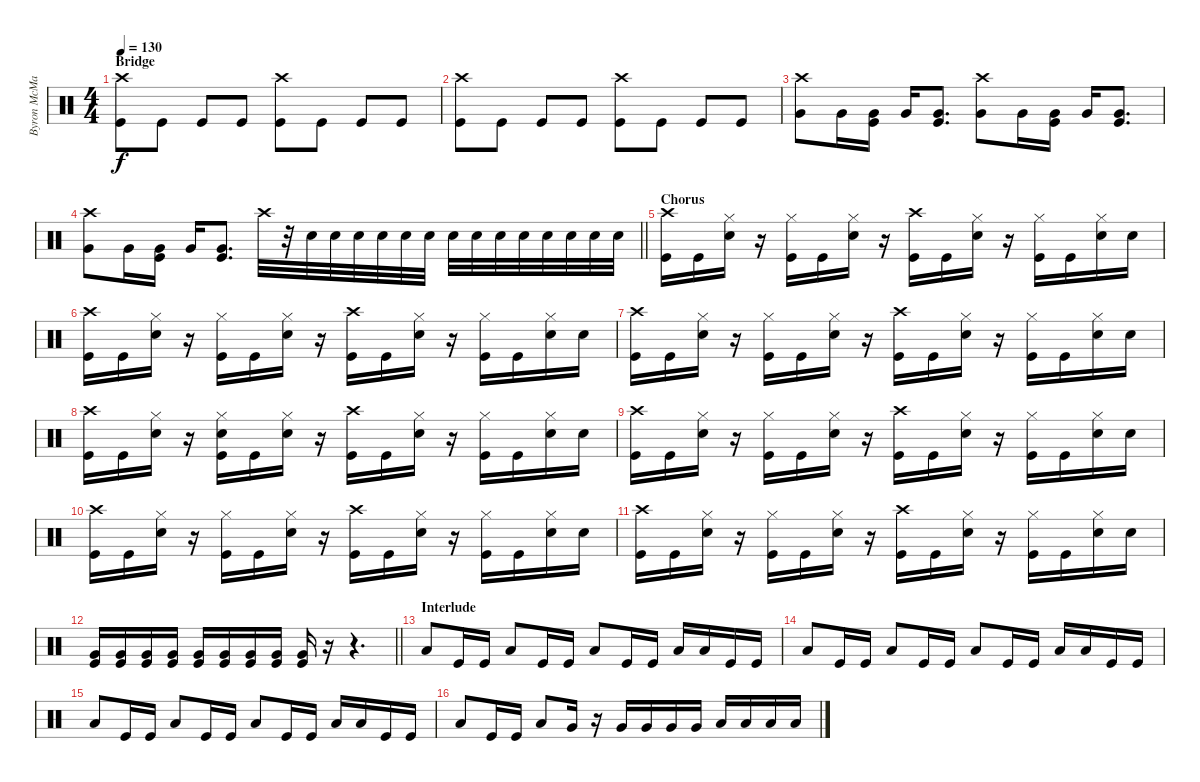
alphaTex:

\track ("Byron McMackin" "Byron McMa") {instrument percussion}
\staff {score}
\articulation defaults
\ts (4 4)
\section ("" "Bridge")
\tempo 130
\clef neutral
\ks c
("Crash high (hit)" "Kick (hit)").8{dy f} "Kick (hit)".8 "Kick (hit)".8 "Kick (hit)".8 ("Crash high (hit)" "Kick (hit)").8 "Kick (hit)".8 "Kick (hit)".8 "Kick (hit)".8 |
("Crash high (hit)" "Kick (hit)").8 "Kick (hit)".8 "Kick (hit)".8 "Kick (hit)".8 ("Crash high (hit)" "Kick (hit)").8 "Kick (hit)".8 "Kick (hit)".8 "Kick (hit)".8 |
("Crash high (hit)" "Very Low Tom (hit)").8 "Very Low Tom (hit)".16 ("Very Low Tom (hit)" "Kick (hit)").16 "Very Low Tom (hit)".16 ("Very Low Tom (hit)" "Kick (hit)").8{d} ("Crash high (hit)" "Very Low Tom (hit)").8 "Very Low Tom (hit)".16 ("Very Low Tom (hit)" "Kick (hit)").16 "Very Low Tom (hit)".16 ("Very Low Tom (hit)" "Kick (hit)").8{d} |
\barLineRight lightlight
("Crash high (hit)" "Very Low Tom (hit)").8 "Very Low Tom (hit)".16 ("Very Low Tom (hit)" "Kick (hit)").16 "Very Low Tom (hit)".16 ("Very Low Tom (hit)" "Kick (hit)").8{d} "Crash high (hit)".32 r.32 "Electric Snare (hit)".32 "Electric Snare (hit)".32 "Electric Snare (hit)".32 "Electric Snare (hit)".32 "Electric Snare (hit)".32 "Electric Snare (hit)".32 "Electric Snare (hit)".32 "Electric Snare (hit)".32 "Electric Snare (hit)".32 "Electric Snare (hit)".32 "Electric Snare (hit)".32 "Electric Snare (hit)".32 "Electric Snare (hit)".32 "Electric Snare (hit)".32 |
\section ("" "Chorus")
("Crash high (hit)" "Kick (hit)").16 "Kick (hit)".16 ("Hi-Hat (closed)" "Electric Snare (hit)").16 r.16 ("Hi-Hat (closed)" "Kick (hit)").16 "Kick (hit)".16 ("Hi-Hat (closed)" "Electric Snare (hit)").16 r.16 ("Crash high (hit)" "Kick (hit)").16 "Kick (hit)".16 ("Hi-Hat (closed)" "Electric Snare (hit)").16 r.16 ("Hi-Hat (closed)" "Kick (hit)").16 "Kick (hit)".16 ("Hi-Hat (closed)" "Electric Snare (hit)").16 "Electric Snare (hit)".16 |
("Crash high (hit)" "Kick (hit)").16 "Kick (hit)".16 ("Hi-Hat (closed)" "Electric Snare (hit)").16 r.16 ("Hi-Hat (closed)" "Kick (hit)").16 "Kick (hit)".16 ("Hi-Hat (closed)" "Electric Snare (hit)").16 r.16 ("Crash high (hit)" "Kick (hit)").16 "Kick (hit)".16 ("Hi-Hat (closed)" "Electric Snare (hit)").16 r.16 ("Hi-Hat (closed)" "Kick (hit)").16 "Kick (hit)".16 ("Hi-Hat (closed)" "Electric Snare (hit)").16 "Electric Snare (hit)".16 |
("Crash high (hit)" "Kick (hit)").16 "Kick (hit)".16 ("Hi-Hat (closed)" "Electric Snare (hit)").16 r.16 ("Hi-Hat (closed)" "Kick (hit)").16 "Kick (hit)".16 ("Hi-Hat (closed)" "Electric Snare (hit)").16 r.16 ("Crash high (hit)" "Kick (hit)").16 "Kick (hit)".16 ("Hi-Hat (closed)" "Electric Snare (hit)").16 r.16 ("Hi-Hat (closed)" "Kick (hit)").16 "Kick (hit)".16 ("Hi-Hat (closed)" "Electric Snare (hit)").16 "Electric Snare (hit)".16 |
("Crash high (hit)" "Kick (hit)").16 "Kick (hit)".16 ("Hi-Hat (closed)" "Electric Snare (hit)").16 r.16 ("Hi-Hat (closed)" "Electric Snare (hit)" "Kick (hit)").16 "Kick (hit)".16 ("Hi-Hat (closed)" "Electric Snare (hit)").16 r.16 ("Crash high (hit)" "Kick (hit)").16 "Kick (hit)".16 ("Hi-Hat (closed)" "Electric Snare (hit)").16 r.16 ("Hi-Hat (closed)" "Kick (hit)").16 "Kick (hit)".16 ("Hi-Hat (closed)" "Electric Snare (hit)").16 "Electric Snare (hit)".16 |
("Crash high (hit)" "Kick (hit)").16 "Kick (hit)".16 ("Hi-Hat (closed)" "Electric Snare (hit)").16 r.16 ("Hi-Hat (closed)" "Kick (hit)").16 "Kick (hit)".16 ("Hi-Hat (closed)" "Electric Snare (hit)").16 r.16 ("Crash high (hit)" "Kick (hit)").16 "Kick (hit)".16 ("Hi-Hat (closed)" "Electric Snare (hit)").16 r.16 ("Hi-Hat (closed)" "Kick (hit)").16 "Kick (hit)".16 ("Hi-Hat (closed)" "Electric Snare (hit)").16 "Electric Snare (hit)".16 |
("Crash high (hit)" "Kick (hit)").16 "Kick (hit)".16 ("Hi-Hat (closed)" "Electric Snare (hit)").16 r.16 ("Hi-Hat (closed)" "Kick (hit)").16 "Kick (hit)".16 ("Hi-Hat (closed)" "Electric Snare (hit)").16 r.16 ("Crash high (hit)" "Kick (hit)").16 "Kick (hit)".16 ("Hi-Hat (closed)" "Electric Snare (hit)").16 r.16 ("Hi-Hat (closed)" "Kick (hit)").16 "Kick (hit)".16 ("Hi-Hat (closed)" "Electric Snare (hit)").16 "Electric Snare (hit)".16 |
("Crash high (hit)" "Kick (hit)").16 "Kick (hit)".16 ("Hi-Hat (closed)" "Electric Snare (hit)").16 r.16 ("Hi-Hat (closed)" "Kick (hit)").16 "Kick (hit)".16 ("Hi-Hat (closed)" "Electric Snare (hit)").16 r.16 ("Crash high (hit)" "Kick (hit)").16 "Kick (hit)".16 ("Hi-Hat (closed)" "Electric Snare (hit)").16 r.16 ("Hi-Hat (closed)" "Kick (hit)").16 "Kick (hit)".16 ("Hi-Hat (closed)" "Electric Snare (hit)").16 "Electric Snare (hit)".16 |
\barLineRight lightlight
("Very Low Tom (hit)" "Kick (hit)").16 ("Very Low Tom (hit)" "Kick (hit)").16 ("Very Low Tom (hit)" "Kick (hit)").16 ("Very Low Tom (hit)" "Kick (hit)").16 ("Very Low Tom (hit)" "Kick (hit)").16 ("Very Low Tom (hit)" "Kick (hit)").16 ("Very Low Tom (hit)" "Kick (hit)").16 ("Very Low Tom (hit)" "Kick (hit)").16 ("Very Low Tom (hit)" "Kick (hit)").16 r.16 r.4{d} |
\section ("" "Interlude")
"Low Tom (hit)".8 "Kick (hit)".16 "Kick (hit)".16 "Low Tom (hit)".8 "Kick (hit)".16 "Kick (hit)".16 "Low Tom (hit)".8 "Kick (hit)".16 "Kick (hit)".16 "Low Tom (hit)".16 "Low Tom (hit)".16 "Kick (hit)".16 "Kick (hit)".16 |
"Low Tom (hit)".8 "Kick (hit)".16 "Kick (hit)".16 "Low Tom (hit)".8 "Kick (hit)".16 "Kick (hit)".16 "Low Tom (hit)".8 "Kick (hit)".16 "Kick (hit)".16 "Low Tom (hit)".16 "Low Tom (hit)".16 "Kick (hit)".16 "Kick (hit)".16 |
"Low Tom (hit)".8 "Kick (hit)".16 "Kick (hit)".16 "Low Tom (hit)".8 "Kick (hit)".16 "Kick (hit)".16 "Low Tom (hit)".8 "Kick (hit)".16 "Kick (hit)".16 "Low Tom (hit)".16 "Low Tom (hit)".16 "Kick (hit)".16 "Kick (hit)".16 |
"Low Tom (hit)".8 "Kick (hit)".16 "Kick (hit)".16 "Low Tom (hit)".8 "Very Low Tom (hit)".16 r.16 "Very Low Tom (hit)".16 "Very Low Tom (hit)".16 "Very Low Tom (hit)".16 "Very Low Tom (hit)".16 "Low Tom (hit)".16 "Low Tom (hit)".16 "Low Tom (hit)".16 "Low Tom (hit)".16
